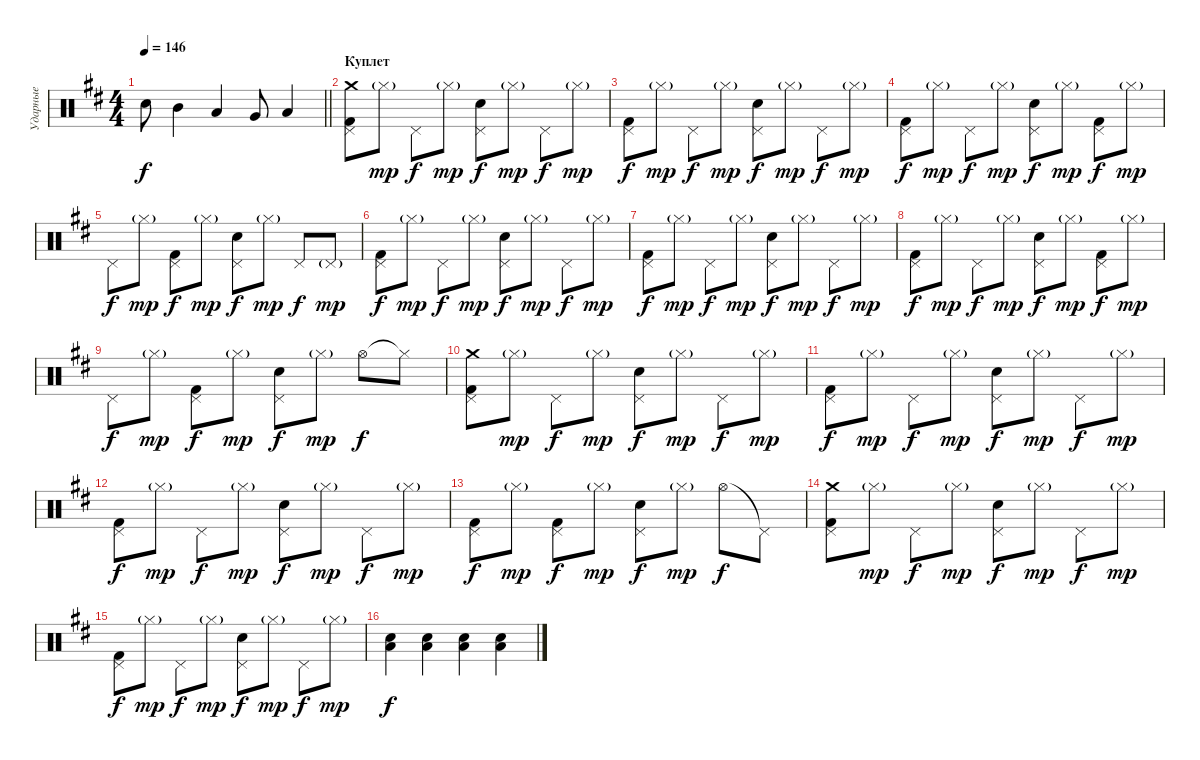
\track ("Ударные" "Ударные") {instrument percussion}
\staff {score}
\articulation defaults
\ts (4 4)
\tempo 146
\clef neutral
\barLineRight lightlight
\ks bminor "Electric Snare (hit)".8{dy f} "Mid Tom (hit)".4 "Low Tom (hit)".4 "Very Low Tom (hit)".8 "Low Floor Tom (hit)".4
|
\section ("" "Куплет")
("Crash medium (hit)" "Kick (hit) 2" "Pedal Hi-Hat (hit)").8 "Hi-Hat (closed)"{g}.8{dy mp} "Pedal Hi-Hat (hit)".8{dy f} "Hi-Hat (closed)"{g}.8{dy mp} ("Electric Snare (hit)" "Pedal Hi-Hat (hit)").8{dy f} "Hi-Hat (closed)"{g}.8{dy mp} "Pedal Hi-Hat (hit)".8{dy f} "Hi-Hat (closed)"{g}.8{dy mp} |
("Kick (hit) 2" "Pedal Hi-Hat (hit)").8{dy f} "Hi-Hat (closed)"{g}.8{dy mp} "Pedal Hi-Hat (hit)".8{dy f} "Hi-Hat (closed)"{g}.8{dy mp} ("Electric Snare (hit)" "Pedal Hi-Hat (hit)").8{dy f} "Hi-Hat (closed)"{g}.8{dy mp} "Pedal Hi-Hat (hit)".8{dy f} "Hi-Hat (closed)"{g}.8{dy mp} |
("Kick (hit) 2" "Pedal Hi-Hat (hit)").8{dy f} "Hi-Hat (closed)"{g}.8{dy mp} "Pedal Hi-Hat (hit)".8{dy f} "Hi-Hat (closed)"{g}.8{dy mp} ("Electric Snare (hit)" "Pedal Hi-Hat (hit)").8{dy f} "Hi-Hat (closed)"{g}.8{dy mp} ("Kick (hit) 2" "Pedal Hi-Hat (hit)").8{dy f} "Hi-Hat (closed)"{g}.8{dy mp} |
"Pedal Hi-Hat (hit)".8{dy f} "Hi-Hat (closed)"{g}.8{dy mp} ("Kick (hit) 2" "Pedal Hi-Hat (hit)").8{dy f} "Hi-Hat (closed)"{g}.8{dy mp} ("Electric Snare (hit)" "Pedal Hi-Hat (hit)").8{dy f} "Hi-Hat (closed)"{g}.8{dy mp} "Pedal Hi-Hat (hit)".8{dy f} "Pedal Hi-Hat (hit)"{g}.8{dy mp} |
("Kick (hit) 2" "Pedal Hi-Hat (hit)").8{dy f} "Hi-Hat (closed)"{g}.8{dy mp} "Pedal Hi-Hat (hit)".8{dy f} "Hi-Hat (closed)"{g}.8{dy mp} ("Electric Snare (hit)" "Pedal Hi-Hat (hit)").8{dy f} "Hi-Hat (closed)"{g}.8{dy mp} "Pedal Hi-Hat (hit)".8{dy f} "Hi-Hat (closed)"{g}.8{dy mp} |
("Kick (hit) 2" "Pedal Hi-Hat (hit)").8{dy f} "Hi-Hat (closed)"{g}.8{dy mp} "Pedal Hi-Hat (hit)".8{dy f} "Hi-Hat (closed)"{g}.8{dy mp} ("Electric Snare (hit)" "Pedal Hi-Hat (hit)").8{dy f} "Hi-Hat (closed)"{g}.8{dy mp} "Pedal Hi-Hat (hit)".8{dy f} "Hi-Hat (closed)"{g}.8{dy mp} |
("Kick (hit) 2" "Pedal Hi-Hat (hit)").8{dy f} "Hi-Hat (closed)"{g}.8{dy mp} "Pedal Hi-Hat (hit)".8{dy f} "Hi-Hat (closed)"{g}.8{dy mp} ("Electric Snare (hit)" "Pedal Hi-Hat (hit)").8{dy f} "Hi-Hat (closed)"{g}.8{dy mp} ("Kick (hit) 2" "Pedal Hi-Hat (hit)").8{dy f} "Hi-Hat (closed)"{g}.8{dy mp} |
"Pedal Hi-Hat (hit)".8{dy f} "Hi-Hat (closed)"{g}.8{dy mp} ("Kick (hit) 2" "Pedal Hi-Hat (hit)").8{dy f} "Hi-Hat (closed)"{g}.8{dy mp} ("Electric Snare (hit)" "Pedal Hi-Hat (hit)").8{dy f} "Hi-Hat (closed)"{g}.8{dy mp} "Hi-Hat (open)".8{dy f} "Hi-Hat (closed)"{t}.8 |
("Crash medium (hit)" "Kick (hit) 2" "Pedal Hi-Hat (hit)").8 "Hi-Hat (closed)"{g}.8{dy mp} "Pedal Hi-Hat (hit)".8{dy f} "Hi-Hat (closed)"{g}.8{dy mp} ("Electric Snare (hit)" "Pedal Hi-Hat (hit)").8{dy f} "Hi-Hat (closed)"{g}.8{dy mp} "Pedal Hi-Hat (hit)".8{dy f} "Hi-Hat (closed)"{g}.8{dy mp} |
("Kick (hit) 2" "Pedal Hi-Hat (hit)").8{dy f} "Hi-Hat (closed)"{g}.8{dy mp} "Pedal Hi-Hat (hit)".8{dy f} "Hi-Hat (closed)"{g}.8{dy mp} ("Electric Snare (hit)" "Pedal Hi-Hat (hit)").8{dy f} "Hi-Hat (closed)"{g}.8{dy mp} "Pedal Hi-Hat (hit)".8{dy f} "Hi-Hat (closed)"{g}.8{dy mp} |
("Kick (hit) 2" "Pedal Hi-Hat (hit)").8{dy f} "Hi-Hat (closed)"{g}.8{dy mp} "Pedal Hi-Hat (hit)".8{dy f} "Hi-Hat (closed)"{g}.8{dy mp} ("Electric Snare (hit)" "Pedal Hi-Hat (hit)").8{dy f} "Hi-Hat (closed)"{g}.8{dy mp} "Pedal Hi-Hat (hit)".8{dy f} "Hi-Hat (closed)"{g}.8{dy mp} |
("Kick (hit) 2" "Pedal Hi-Hat (hit)").8{dy f} "Hi-Hat (closed)"{g}.8{dy mp} ("Kick (hit) 2" "Pedal Hi-Hat (hit)").8{dy f} "Hi-Hat (closed)"{g}.8{dy mp} ("Electric Snare (hit)" "Pedal Hi-Hat (hit)").8{dy f} "Hi-Hat (closed)"{g}.8{dy mp} "Hi-Hat (open)".8{dy f} "Pedal Hi-Hat (hit)"{t}.8 |
("Crash medium (hit)" "Kick (hit) 2" "Pedal Hi-Hat (hit)").8 "Hi-Hat (closed)"{g}.8{dy mp} "Pedal Hi-Hat (hit)".8{dy f} "Hi-Hat (closed)"{g}.8{dy mp} ("Electric Snare (hit)" "Pedal Hi-Hat (hit)").8{dy f} "Hi-Hat (closed)"{g}.8{dy mp} "Pedal Hi-Hat (hit)".8{dy f} "Hi-Hat (closed)"{g}.8{dy mp} |
("Kick (hit) 2" "Pedal Hi-Hat (hit)").8{dy f} "Hi-Hat (closed)"{g}.8{dy mp} "Pedal Hi-Hat (hit)".8{dy f} "Hi-Hat (closed)"{g}.8{dy mp} ("Electric Snare (hit)" "Pedal Hi-Hat (hit)").8{dy f} "Hi-Hat (closed)"{g}.8{dy mp} "Pedal Hi-Hat (hit)".8{dy f} "Hi-Hat (closed)"{g}.8{dy mp} |
("Electric Snare (hit)" "Low Tom (hit)").4{dy f} ("Electric Snare (hit)" "Low Tom (hit)").4 ("Electric Snare (hit)" "Low Tom (hit)").4 ("Electric Snare (hit)" "Low Tom (hit)").4
